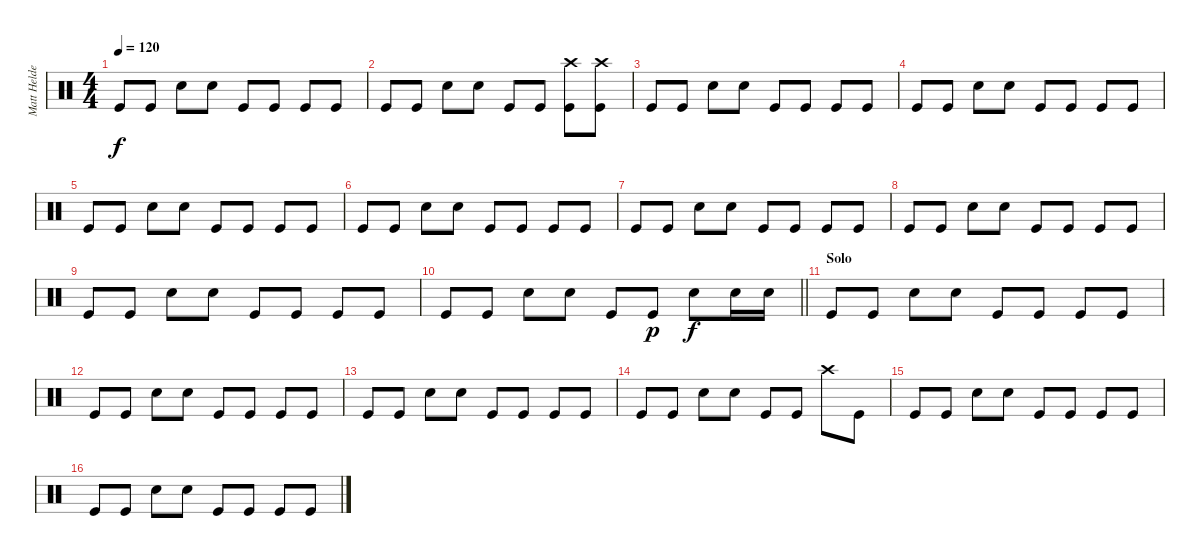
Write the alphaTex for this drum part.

\track ("Matt Helders" "Matt Helde") {instrument percussion}
\staff {score}
\articulation defaults
\ts (4 4)
\tempo 120
\clef neutral
\ks c "Kick (hit)".8{dy f} "Kick (hit)".8 "Electric Snare (hit)".8 "Electric Snare (hit)".8 "Kick (hit)".8 "Kick (hit)".8 "Kick (hit)".8 "Kick (hit)".8
|
"Kick (hit)".8 "Kick (hit)".8 "Electric Snare (hit)".8 "Electric Snare (hit)".8 "Kick (hit)".8 "Kick (hit)".8 ("Crash high (hit)" "Kick (hit)").8 ("Crash high (hit)" "Kick (hit)").8 |
"Kick (hit)".8 "Kick (hit)".8 "Electric Snare (hit)".8 "Electric Snare (hit)".8 "Kick (hit)".8 "Kick (hit)".8 "Kick (hit)".8 "Kick (hit)".8 |
"Kick (hit)".8 "Kick (hit)".8 "Electric Snare (hit)".8 "Electric Snare (hit)".8 "Kick (hit)".8 "Kick (hit)".8 "Kick (hit)".8 "Kick (hit)".8 |
"Kick (hit)".8 "Kick (hit)".8 "Electric Snare (hit)".8 "Electric Snare (hit)".8 "Kick (hit)".8 "Kick (hit)".8 "Kick (hit)".8 "Kick (hit)".8 |
"Kick (hit)".8 "Kick (hit)".8 "Electric Snare (hit)".8 "Electric Snare (hit)".8 "Kick (hit)".8 "Kick (hit)".8 "Kick (hit)".8 "Kick (hit)".8 |
"Kick (hit)".8 "Kick (hit)".8 "Electric Snare (hit)".8 "Electric Snare (hit)".8 "Kick (hit)".8 "Kick (hit)".8 "Kick (hit)".8 "Kick (hit)".8 |
"Kick (hit)".8 "Kick (hit)".8 "Electric Snare (hit)".8 "Electric Snare (hit)".8 "Kick (hit)".8 "Kick (hit)".8 "Kick (hit)".8 "Kick (hit)".8 |
"Kick (hit)".8 "Kick (hit)".8 "Electric Snare (hit)".8 "Electric Snare (hit)".8 "Kick (hit)".8 "Kick (hit)".8 "Kick (hit)".8 "Kick (hit)".8 |
\barLineRight lightlight "Kick (hit)".8 "Kick (hit)".8 "Electric Snare (hit)".8 "Electric Snare (hit)".8 "Kick (hit)".8 "Kick (hit)".8{dy p} "Electric Snare (hit)".8{dy f} "Electric Snare (hit)".16 "Electric Snare (hit)".16
|
\section ("" "Solo")
"Kick (hit)".8 "Kick (hit)".8 "Electric Snare (hit)".8 "Electric Snare (hit)".8 "Kick (hit)".8 "Kick (hit)".8 "Kick (hit)".8 "Kick (hit)".8 |
"Kick (hit)".8 "Kick (hit)".8 "Electric Snare (hit)".8 "Electric Snare (hit)".8 "Kick (hit)".8 "Kick (hit)".8 "Kick (hit)".8 "Kick (hit)".8 |
"Kick (hit)".8 "Kick (hit)".8 "Electric Snare (hit)".8 "Electric Snare (hit)".8 "Kick (hit)".8 "Kick (hit)".8 "Kick (hit)".8 "Kick (hit)".8 |
"Kick (hit)".8 "Kick (hit)".8 "Electric Snare (hit)".8 "Electric Snare (hit)".8 "Kick (hit)".8 "Kick (hit)".8 "Crash high (hit)".8 "Kick (hit)".8 |
"Kick (hit)".8 "Kick (hit)".8 "Electric Snare (hit)".8 "Electric Snare (hit)".8 "Kick (hit)".8 "Kick (hit)".8 "Kick (hit)".8 "Kick (hit)".8 |
"Kick (hit)".8 "Kick (hit)".8 "Electric Snare (hit)".8 "Electric Snare (hit)".8 "Kick (hit)".8 "Kick (hit)".8 "Kick (hit)".8 "Kick (hit)".8
